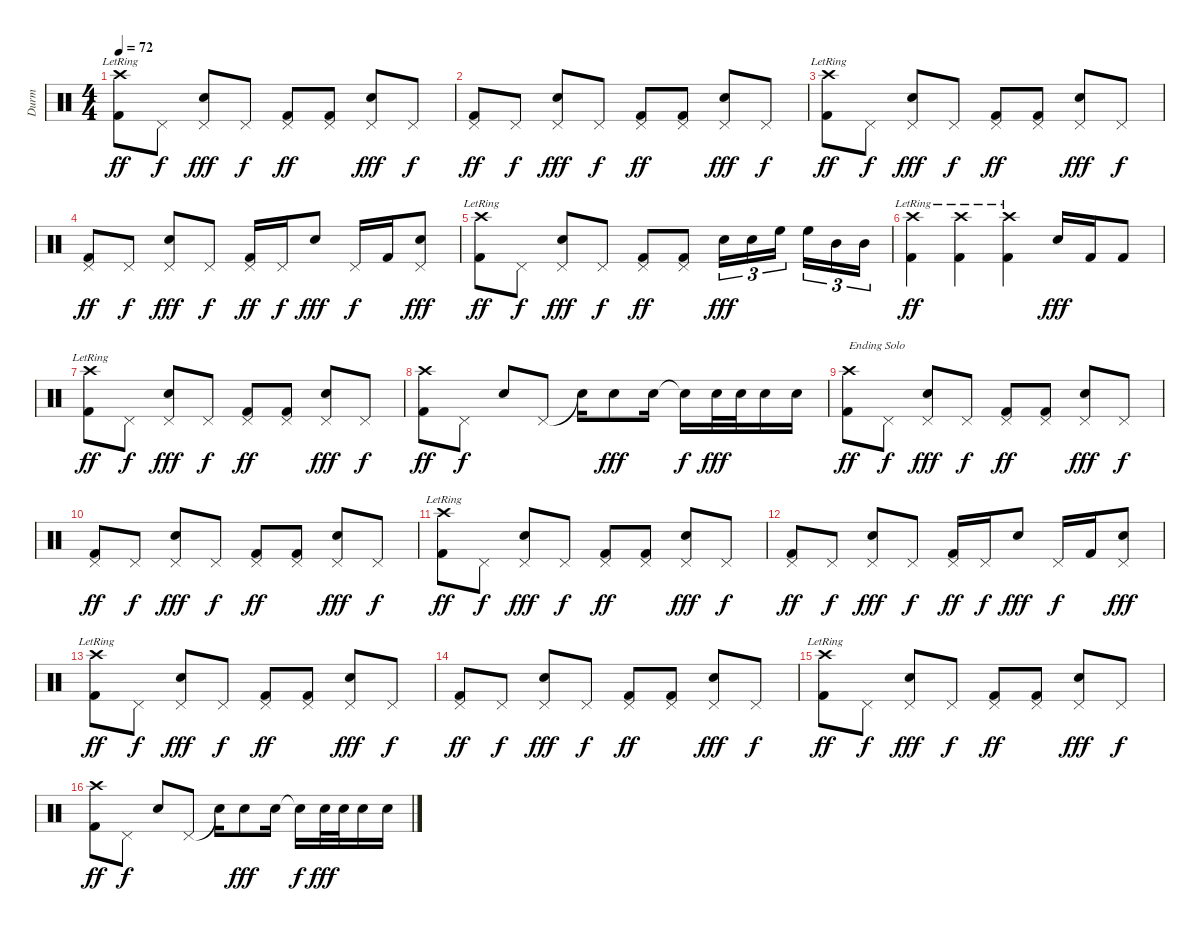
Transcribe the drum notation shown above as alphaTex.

\track ("Durm" "Durm") {instrument percussion}
\staff {score}
\articulation defaults
\ts (4 4)
\tempo 72
\clef neutral
\ks c
("Crash high (hit)"{lr} "Kick (hit) 2").8{dy ff} "Pedal Hi-Hat (hit)".8{dy f} ("Pedal Hi-Hat (hit)" "Electric Snare (hit)").8{dy fff} "Pedal Hi-Hat (hit)".8{dy f} ("Pedal Hi-Hat (hit)" "Kick (hit) 2").8{dy ff} ("Pedal Hi-Hat (hit)" "Kick (hit) 2").8 ("Pedal Hi-Hat (hit)" "Electric Snare (hit)").8{dy fff} "Pedal Hi-Hat (hit)".8{dy f} |
("Pedal Hi-Hat (hit)" "Kick (hit) 2").8{dy ff} "Pedal Hi-Hat (hit)".8{dy f} ("Pedal Hi-Hat (hit)" "Electric Snare (hit)").8{dy fff} "Pedal Hi-Hat (hit)".8{dy f} ("Pedal Hi-Hat (hit)" "Kick (hit) 2").8{dy ff} ("Pedal Hi-Hat (hit)" "Kick (hit) 2").8 ("Pedal Hi-Hat (hit)" "Electric Snare (hit)").8{dy fff} "Pedal Hi-Hat (hit)".8{dy f} |
("Crash high (hit)"{lr} "Kick (hit) 2").8{dy ff} "Pedal Hi-Hat (hit)".8{dy f} ("Pedal Hi-Hat (hit)" "Electric Snare (hit)").8{dy fff} "Pedal Hi-Hat (hit)".8{dy f} ("Pedal Hi-Hat (hit)" "Kick (hit) 2").8{dy ff} ("Pedal Hi-Hat (hit)" "Kick (hit) 2").8 ("Pedal Hi-Hat (hit)" "Electric Snare (hit)").8{dy fff} "Pedal Hi-Hat (hit)".8{dy f} |
("Pedal Hi-Hat (hit)" "Kick (hit) 2").8{dy ff} "Pedal Hi-Hat (hit)".8{dy f} ("Pedal Hi-Hat (hit)" "Electric Snare (hit)").8{dy fff} "Pedal Hi-Hat (hit)".8{dy f} ("Pedal Hi-Hat (hit)" "Kick (hit) 2").16{dy ff} "Pedal Hi-Hat (hit)".16{dy f} "Electric Snare (hit)".8{dy fff} "Pedal Hi-Hat (hit)".16{dy f} "Kick (hit) 2".16 ("Pedal Hi-Hat (hit)" "Electric Snare (hit)").8{dy fff} |
("Crash high (hit)"{lr} "Kick (hit) 2").8{dy ff} "Pedal Hi-Hat (hit)".8{dy f} ("Pedal Hi-Hat (hit)" "Electric Snare (hit)").8{dy fff} "Pedal Hi-Hat (hit)".8{dy f} ("Pedal Hi-Hat (hit)" "Kick (hit) 2").8{dy ff} ("Pedal Hi-Hat (hit)" "Kick (hit) 2").8 "Electric Snare (hit)".16{tu (3 2) dy fff} "Electric Snare (hit)".16{tu (3 2)} "High Floor Tom (hit)".16{tu (3 2)} "High Floor Tom (hit)".16{tu (3 2)} "Mid Tom (hit)".16{tu (3 2)} "Mid Tom (hit)".16{tu (3 2)} |
("Crash high (hit)"{lr} "Kick (hit) 2").4{dy ff} ("Crash high (hit)"{lr} "Kick (hit) 2").4 ("Crash high (hit)"{lr} "Kick (hit) 2").4 "Electric Snare (hit)".16{dy fff} "Kick (hit) 2".16 "Kick (hit) 2".8 |
("Crash high (hit)"{lr} "Kick (hit) 2").8{dy ff} "Pedal Hi-Hat (hit)".8{dy f} ("Pedal Hi-Hat (hit)" "Electric Snare (hit)").8{dy fff} "Pedal Hi-Hat (hit)".8{dy f} ("Pedal Hi-Hat (hit)" "Kick (hit) 2").8{dy ff} ("Pedal Hi-Hat (hit)" "Kick (hit) 2").8 ("Pedal Hi-Hat (hit)" "Electric Snare (hit)").8{dy fff} "Pedal Hi-Hat (hit)".8{dy f} |
("Crash high (hit)" "Kick (hit) 2").8{dy ff} "Pedal Hi-Hat (hit)".8{dy f} "Electric Snare (hit)".8 "Pedal Hi-Hat (hit)".8 "Snare (hit)"{t}.16 "Electric Snare (hit)".8{dy fff} "Electric Snare (hit)".16 "Snare (hit)"{t}.16{dy f} "Electric Snare (hit)".32{dy fff} "Electric Snare (hit)".32 "Electric Snare (hit)".16 "Electric Snare (hit)".16 |
("Crash high (hit)" "Kick (hit) 2").8{txt "Ending Solo" dy ff} "Pedal Hi-Hat (hit)".8{dy f} ("Pedal Hi-Hat (hit)" "Electric Snare (hit)").8{dy fff} "Pedal Hi-Hat (hit)".8{dy f} ("Pedal Hi-Hat (hit)" "Kick (hit) 2").8{dy ff} ("Pedal Hi-Hat (hit)" "Kick (hit) 2").8 ("Pedal Hi-Hat (hit)" "Electric Snare (hit)").8{dy fff} "Pedal Hi-Hat (hit)".8{dy f} |
("Pedal Hi-Hat (hit)" "Kick (hit) 2").8{dy ff} "Pedal Hi-Hat (hit)".8{dy f} ("Pedal Hi-Hat (hit)" "Electric Snare (hit)").8{dy fff} "Pedal Hi-Hat (hit)".8{dy f} ("Pedal Hi-Hat (hit)" "Kick (hit) 2").8{dy ff} ("Pedal Hi-Hat (hit)" "Kick (hit) 2").8 ("Pedal Hi-Hat (hit)" "Electric Snare (hit)").8{dy fff} "Pedal Hi-Hat (hit)".8{dy f} |
("Crash high (hit)"{lr} "Kick (hit) 2").8{dy ff} "Pedal Hi-Hat (hit)".8{dy f} ("Pedal Hi-Hat (hit)" "Electric Snare (hit)").8{dy fff} "Pedal Hi-Hat (hit)".8{dy f} ("Pedal Hi-Hat (hit)" "Kick (hit) 2").8{dy ff} ("Pedal Hi-Hat (hit)" "Kick (hit) 2").8 ("Pedal Hi-Hat (hit)" "Electric Snare (hit)").8{dy fff} "Pedal Hi-Hat (hit)".8{dy f} |
("Pedal Hi-Hat (hit)" "Kick (hit) 2").8{dy ff} "Pedal Hi-Hat (hit)".8{dy f} ("Pedal Hi-Hat (hit)" "Electric Snare (hit)").8{dy fff} "Pedal Hi-Hat (hit)".8{dy f} ("Pedal Hi-Hat (hit)" "Kick (hit) 2").16{dy ff} "Pedal Hi-Hat (hit)".16{dy f} "Electric Snare (hit)".8{dy fff} "Pedal Hi-Hat (hit)".16{dy f} "Kick (hit) 2".16 ("Pedal Hi-Hat (hit)" "Electric Snare (hit)").8{dy fff} |
("Crash high (hit)"{lr} "Kick (hit) 2").8{dy ff} "Pedal Hi-Hat (hit)".8{dy f} ("Pedal Hi-Hat (hit)" "Electric Snare (hit)").8{dy fff} "Pedal Hi-Hat (hit)".8{dy f} ("Pedal Hi-Hat (hit)" "Kick (hit) 2").8{dy ff} ("Pedal Hi-Hat (hit)" "Kick (hit) 2").8 ("Pedal Hi-Hat (hit)" "Electric Snare (hit)").8{dy fff} "Pedal Hi-Hat (hit)".8{dy f} |
("Pedal Hi-Hat (hit)" "Kick (hit) 2").8{dy ff} "Pedal Hi-Hat (hit)".8{dy f} ("Pedal Hi-Hat (hit)" "Electric Snare (hit)").8{dy fff} "Pedal Hi-Hat (hit)".8{dy f} ("Pedal Hi-Hat (hit)" "Kick (hit) 2").8{dy ff} ("Pedal Hi-Hat (hit)" "Kick (hit) 2").8 ("Pedal Hi-Hat (hit)" "Electric Snare (hit)").8{dy fff} "Pedal Hi-Hat (hit)".8{dy f} |
("Crash high (hit)"{lr} "Kick (hit) 2").8{dy ff} "Pedal Hi-Hat (hit)".8{dy f} ("Pedal Hi-Hat (hit)" "Electric Snare (hit)").8{dy fff} "Pedal Hi-Hat (hit)".8{dy f} ("Pedal Hi-Hat (hit)" "Kick (hit) 2").8{dy ff} ("Pedal Hi-Hat (hit)" "Kick (hit) 2").8 ("Pedal Hi-Hat (hit)" "Electric Snare (hit)").8{dy fff} "Pedal Hi-Hat (hit)".8{dy f} |
("Crash high (hit)" "Kick (hit) 2").8{dy ff} "Pedal Hi-Hat (hit)".8{dy f} "Electric Snare (hit)".8 "Pedal Hi-Hat (hit)".8 "Snare (hit)"{t}.16 "Electric Snare (hit)".8{dy fff} "Electric Snare (hit)".16 "Snare (hit)"{t}.16{dy f} "Electric Snare (hit)".32{dy fff} "Electric Snare (hit)".32 "Electric Snare (hit)".16 "Electric Snare (hit)".16
